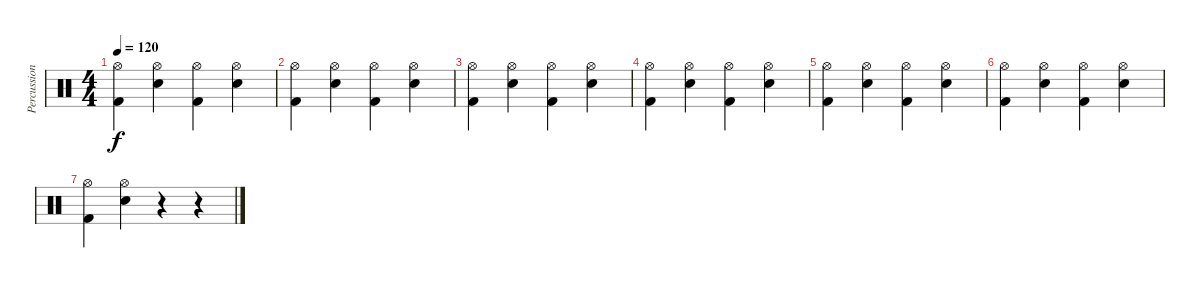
\track ("Percussion" "Percussion") {instrument percussion}
\staff {score}
\articulation defaults
\ts (4 4)
\tempo 120
\clef neutral
\ks c
("Kick (hit) 2" "Hi-Hat (open)").4{dy f} ("Electric Snare (hit)" "Hi-Hat (open)").4 ("Kick (hit) 2" "Hi-Hat (open)").4 ("Electric Snare (hit)" "Hi-Hat (open)").4 |
("Kick (hit) 2" "Hi-Hat (open)").4 ("Electric Snare (hit)" "Hi-Hat (open)").4 ("Kick (hit) 2" "Hi-Hat (open)").4 ("Electric Snare (hit)" "Hi-Hat (open)").4 |
("Kick (hit) 2" "Hi-Hat (open)").4 ("Electric Snare (hit)" "Hi-Hat (open)").4 ("Kick (hit) 2" "Hi-Hat (open)").4 ("Electric Snare (hit)" "Hi-Hat (open)").4 |
("Kick (hit) 2" "Hi-Hat (open)").4 ("Electric Snare (hit)" "Hi-Hat (open)").4 ("Kick (hit) 2" "Hi-Hat (open)").4 ("Electric Snare (hit)" "Hi-Hat (open)").4 |
("Kick (hit) 2" "Hi-Hat (open)").4 ("Electric Snare (hit)" "Hi-Hat (open)").4 ("Kick (hit) 2" "Hi-Hat (open)").4 ("Electric Snare (hit)" "Hi-Hat (open)").4 |
("Kick (hit) 2" "Hi-Hat (open)").4 ("Electric Snare (hit)" "Hi-Hat (open)").4 ("Kick (hit) 2" "Hi-Hat (open)").4 ("Electric Snare (hit)" "Hi-Hat (open)").4 |
("Kick (hit) 2" "Hi-Hat (open)").4 ("Electric Snare (hit)" "Hi-Hat (open)").4 r.4 r.4
